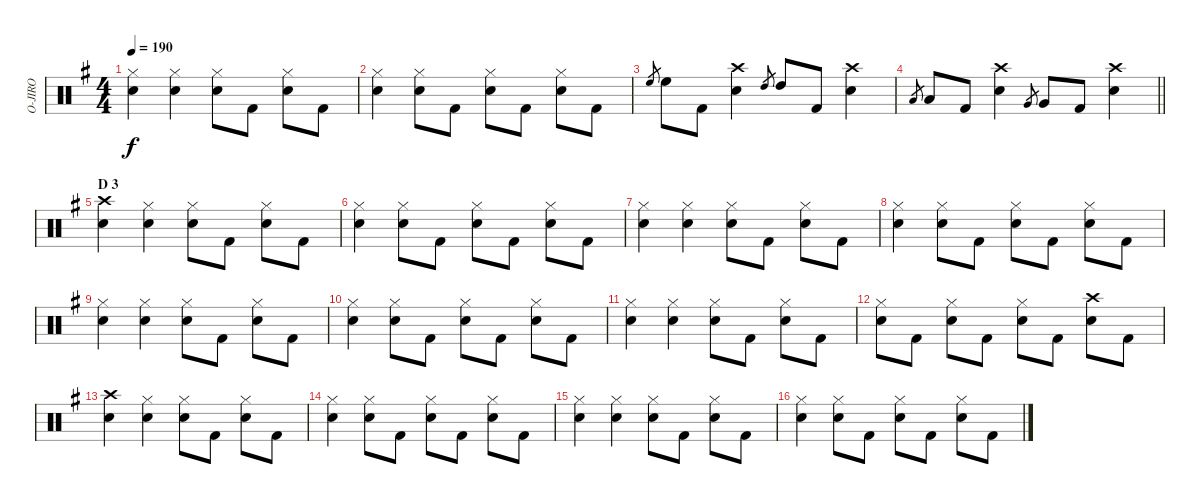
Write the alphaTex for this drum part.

\track ("O-JIRO" "O-JIRO") {instrument percussion}
\staff {score}
\articulation defaults
\ts (4 4)
\tempo 190
\clef neutral
\ks g
("Hi-Hat (closed)" "Snare (hit) 2").4{dy f} ("Hi-Hat (closed)" "Snare (hit) 2").4 ("Hi-Hat (closed)" "Snare (hit) 2").8 "Kick (hit) 2".8 ("Hi-Hat (closed)" "Snare (hit) 2").8 "Kick (hit) 2".8 |
("Hi-Hat (closed)" "Snare (hit) 2").4 ("Hi-Hat (closed)" "Snare (hit) 2").8 "Kick (hit) 2".8 ("Hi-Hat (closed)" "Snare (hit) 2").8 "Kick (hit) 2".8 ("Hi-Hat (closed)" "Snare (hit) 2").8 "Kick (hit) 2".8 |
"High Floor Tom (hit)".8{gr} "High Floor Tom (hit)".8 "Kick (hit) 2".8 ("Crash high (hit)" "Snare (hit) 2").4 "High Tom (hit)".8{gr} "High Tom (hit)".8 "Kick (hit) 2".8 ("Crash high (hit)" "Snare (hit) 2").4 |
\barLineRight lightlight "Low Tom (hit)".8{gr} "Low Tom (hit)".8 "Kick (hit) 2".8
("Crash high (hit)" "Snare (hit) 2").4 "Very Low Tom (hit)".8{gr} "Very Low Tom (hit)".8 "Kick (hit) 2".8 ("Crash high (hit)" "Snare (hit) 2").4 |
\section ("" "D 3")
("Crash high (hit)" "Snare (hit) 2").4 ("Hi-Hat (closed)" "Snare (hit) 2").4 ("Hi-Hat (closed)" "Snare (hit) 2").8 "Kick (hit) 2".8 ("Hi-Hat (closed)" "Snare (hit) 2").8 "Kick (hit) 2".8 |
("Hi-Hat (closed)" "Snare (hit) 2").4 ("Hi-Hat (closed)" "Snare (hit) 2").8 "Kick (hit) 2".8 ("Hi-Hat (closed)" "Snare (hit) 2").8 "Kick (hit) 2".8 ("Hi-Hat (closed)" "Snare (hit) 2").8 "Kick (hit) 2".8 |
("Hi-Hat (closed)" "Snare (hit) 2").4 ("Hi-Hat (closed)" "Snare (hit) 2").4 ("Hi-Hat (closed)" "Snare (hit) 2").8 "Kick (hit) 2".8 ("Hi-Hat (closed)" "Snare (hit) 2").8 "Kick (hit) 2".8 |
("Hi-Hat (closed)" "Snare (hit) 2").4 ("Hi-Hat (closed)" "Snare (hit) 2").8 "Kick (hit) 2".8 ("Hi-Hat (closed)" "Snare (hit) 2").8 "Kick (hit) 2".8 ("Hi-Hat (closed)" "Snare (hit) 2").8 "Kick (hit) 2".8 |
("Hi-Hat (closed)" "Snare (hit) 2").4 ("Hi-Hat (closed)" "Snare (hit) 2").4 ("Hi-Hat (closed)" "Snare (hit) 2").8 "Kick (hit) 2".8 ("Hi-Hat (closed)" "Snare (hit) 2").8 "Kick (hit) 2".8 |
("Hi-Hat (closed)" "Snare (hit) 2").4 ("Hi-Hat (closed)" "Snare (hit) 2").8 "Kick (hit) 2".8 ("Hi-Hat (closed)" "Snare (hit) 2").8 "Kick (hit) 2".8 ("Hi-Hat (closed)" "Snare (hit) 2").8 "Kick (hit) 2".8 |
("Hi-Hat (closed)" "Snare (hit) 2").4 ("Hi-Hat (closed)" "Snare (hit) 2").4 ("Hi-Hat (closed)" "Snare (hit) 2").8 "Kick (hit) 2".8 ("Hi-Hat (closed)" "Snare (hit) 2").8 "Kick (hit) 2".8 |
("Hi-Hat (closed)" "Snare (hit) 2").8 "Kick (hit) 2".8 ("Hi-Hat (closed)" "Snare (hit) 2").8 "Kick (hit) 2".8 ("Hi-Hat (closed)" "Snare (hit) 2").8 "Kick (hit) 2".8 ("Crash high (hit)" "Snare (hit) 2").8 "Kick (hit) 2".8 |
("Crash high (hit)" "Snare (hit) 2").4 ("Hi-Hat (closed)" "Snare (hit) 2").4 ("Hi-Hat (closed)" "Snare (hit) 2").8 "Kick (hit) 2".8 ("Hi-Hat (closed)" "Snare (hit) 2").8 "Kick (hit) 2".8 |
("Hi-Hat (closed)" "Snare (hit) 2").4 ("Hi-Hat (closed)" "Snare (hit) 2").8 "Kick (hit) 2".8 ("Hi-Hat (closed)" "Snare (hit) 2").8 "Kick (hit) 2".8 ("Hi-Hat (closed)" "Snare (hit) 2").8 "Kick (hit) 2".8 |
("Hi-Hat (closed)" "Snare (hit) 2").4 ("Hi-Hat (closed)" "Snare (hit) 2").4 ("Hi-Hat (closed)" "Snare (hit) 2").8 "Kick (hit) 2".8 ("Hi-Hat (closed)" "Snare (hit) 2").8 "Kick (hit) 2".8 |
("Hi-Hat (closed)" "Snare (hit) 2").4 ("Hi-Hat (closed)" "Snare (hit) 2").8 "Kick (hit) 2".8 ("Hi-Hat (closed)" "Snare (hit) 2").8 "Kick (hit) 2".8 ("Hi-Hat (closed)" "Snare (hit) 2").8 "Kick (hit) 2".8
